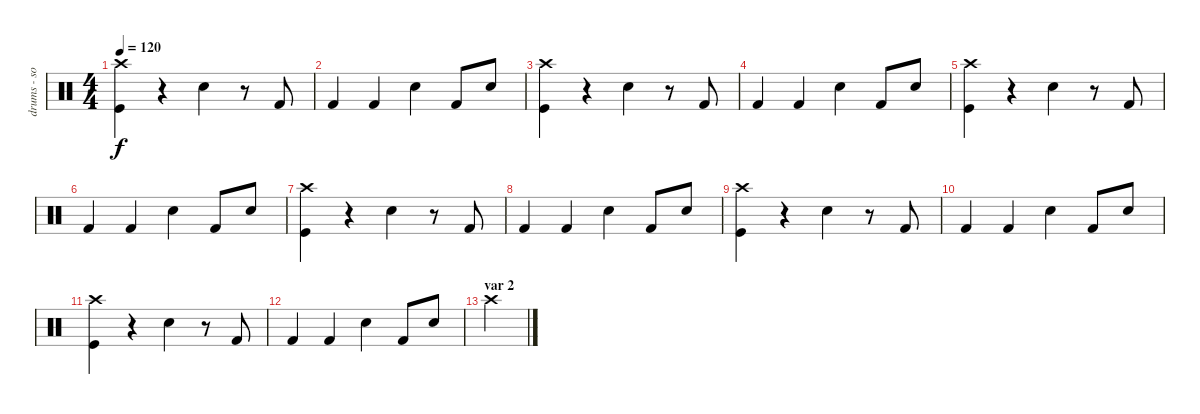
\track ("drums - someone maybe miki" "drums - so") {instrument percussion}
\staff {score}
\articulation defaults
\ts (4 4)
\tempo 120
\clef neutral
\ks c
("Kick (hit)" "Crash high (hit)").4{dy f} r.4 "Snare (hit) 2".4 r.8 "Kick (hit) 2".8 |
"Kick (hit) 2".4 "Kick (hit) 2".4 "Snare (hit) 2".4 "Kick (hit) 2".8 "Snare (hit) 2".8 |
("Kick (hit)" "Crash high (hit)").4 r.4 "Snare (hit) 2".4 r.8 "Kick (hit) 2".8 |
"Kick (hit) 2".4 "Kick (hit) 2".4 "Snare (hit) 2".4 "Kick (hit) 2".8 "Snare (hit) 2".8 |
("Kick (hit)" "Crash high (hit)").4 r.4 "Snare (hit) 2".4 r.8 "Kick (hit) 2".8 |
"Kick (hit) 2".4 "Kick (hit) 2".4 "Snare (hit) 2".4 "Kick (hit) 2".8 "Snare (hit) 2".8 |
("Kick (hit)" "Crash high (hit)").4 r.4 "Snare (hit) 2".4 r.8 "Kick (hit) 2".8 |
"Kick (hit) 2".4 "Kick (hit) 2".4 "Snare (hit) 2".4 "Kick (hit) 2".8 "Snare (hit) 2".8 |
("Kick (hit)" "Crash high (hit)").4 r.4 "Snare (hit) 2".4 r.8 "Kick (hit) 2".8 |
"Kick (hit) 2".4 "Kick (hit) 2".4 "Snare (hit) 2".4 "Kick (hit) 2".8 "Snare (hit) 2".8 |
("Kick (hit)" "Crash high (hit)").4 r.4 "Snare (hit) 2".4 r.8 "Kick (hit) 2".8 |
"Kick (hit) 2".4 "Kick (hit) 2".4 "Snare (hit) 2".4 "Kick (hit) 2".8 "Snare (hit) 2".8 |
\section ("" "var 2")
"Crash high (hit)".4
